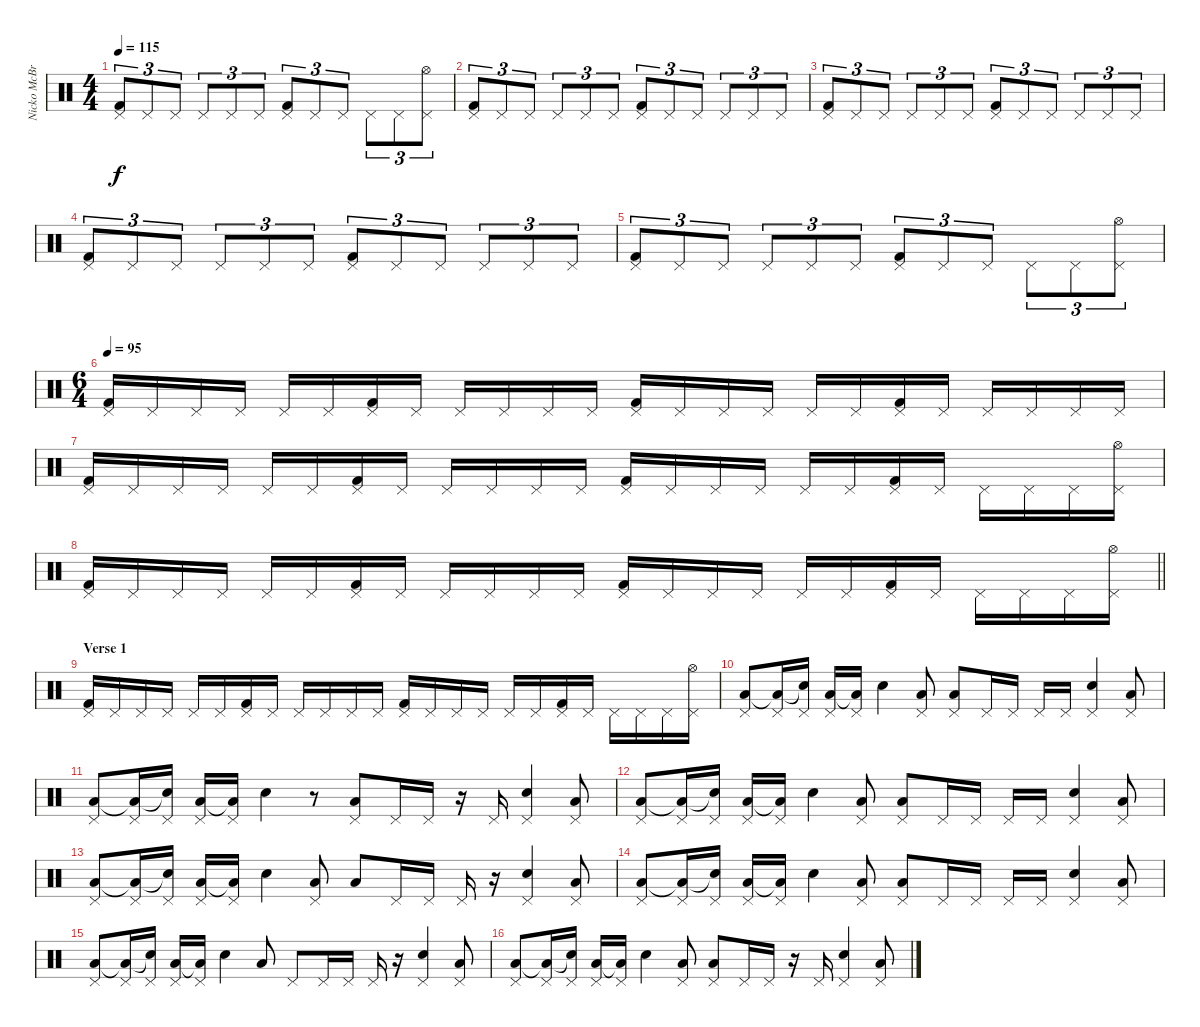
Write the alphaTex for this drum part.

\track ("Nicko McBrain" "Nicko McBr") {instrument percussion}
\staff {score}
\articulation defaults
\ts (4 4)
\tempo 115
\clef neutral
\ks c
("Pedal Hi-Hat (hit)" "Kick (hit) 2").8{tu (3 2) dy f} "Pedal Hi-Hat (hit)".8{tu (3 2)} "Pedal Hi-Hat (hit)".8{tu (3 2)} "Pedal Hi-Hat (hit)".8{tu (3 2)} "Pedal Hi-Hat (hit)".8{tu (3 2)} "Pedal Hi-Hat (hit)".8{tu (3 2)} ("Pedal Hi-Hat (hit)" "Kick (hit) 2").8{tu (3 2)} "Pedal Hi-Hat (hit)".8{tu (3 2)} "Pedal Hi-Hat (hit)".8{tu (3 2)} "Pedal Hi-Hat (hit)".8{tu (3 2)} "Pedal Hi-Hat (hit)".8{tu (3 2)} ("Pedal Hi-Hat (hit)" "Hi-Hat (open)").8{tu (3 2)} |
("Pedal Hi-Hat (hit)" "Kick (hit) 2").8{tu (3 2)} "Pedal Hi-Hat (hit)".8{tu (3 2)} "Pedal Hi-Hat (hit)".8{tu (3 2)} "Pedal Hi-Hat (hit)".8{tu (3 2)} "Pedal Hi-Hat (hit)".8{tu (3 2)} "Pedal Hi-Hat (hit)".8{tu (3 2)} ("Pedal Hi-Hat (hit)" "Kick (hit) 2").8{tu (3 2)} "Pedal Hi-Hat (hit)".8{tu (3 2)} "Pedal Hi-Hat (hit)".8{tu (3 2)} "Pedal Hi-Hat (hit)".8{tu (3 2)} "Pedal Hi-Hat (hit)".8{tu (3 2)} "Pedal Hi-Hat (hit)".8{tu (3 2)} |
("Pedal Hi-Hat (hit)" "Kick (hit) 2").8{tu (3 2)} "Pedal Hi-Hat (hit)".8{tu (3 2)} "Pedal Hi-Hat (hit)".8{tu (3 2)} "Pedal Hi-Hat (hit)".8{tu (3 2)} "Pedal Hi-Hat (hit)".8{tu (3 2)} "Pedal Hi-Hat (hit)".8{tu (3 2)} ("Pedal Hi-Hat (hit)" "Kick (hit) 2").8{tu (3 2)} "Pedal Hi-Hat (hit)".8{tu (3 2)} "Pedal Hi-Hat (hit)".8{tu (3 2)} "Pedal Hi-Hat (hit)".8{tu (3 2)} "Pedal Hi-Hat (hit)".8{tu (3 2)} "Pedal Hi-Hat (hit)".8{tu (3 2)} |
("Pedal Hi-Hat (hit)" "Kick (hit) 2").8{tu (3 2)} "Pedal Hi-Hat (hit)".8{tu (3 2)} "Pedal Hi-Hat (hit)".8{tu (3 2)} "Pedal Hi-Hat (hit)".8{tu (3 2)} "Pedal Hi-Hat (hit)".8{tu (3 2)} "Pedal Hi-Hat (hit)".8{tu (3 2)} ("Pedal Hi-Hat (hit)" "Kick (hit) 2").8{tu (3 2)} "Pedal Hi-Hat (hit)".8{tu (3 2)} "Pedal Hi-Hat (hit)".8{tu (3 2)} "Pedal Hi-Hat (hit)".8{tu (3 2)} "Pedal Hi-Hat (hit)".8{tu (3 2)} "Pedal Hi-Hat (hit)".8{tu (3 2)} |
("Pedal Hi-Hat (hit)" "Kick (hit) 2").8{tu (3 2)} "Pedal Hi-Hat (hit)".8{tu (3 2)} "Pedal Hi-Hat (hit)".8{tu (3 2)} "Pedal Hi-Hat (hit)".8{tu (3 2)} "Pedal Hi-Hat (hit)".8{tu (3 2)} "Pedal Hi-Hat (hit)".8{tu (3 2)} ("Pedal Hi-Hat (hit)" "Kick (hit) 2").8{tu (3 2)} "Pedal Hi-Hat (hit)".8{tu (3 2)} "Pedal Hi-Hat (hit)".8{tu (3 2)} "Pedal Hi-Hat (hit)".8{tu (3 2)} "Pedal Hi-Hat (hit)".8{tu (3 2)} ("Pedal Hi-Hat (hit)" "Hi-Hat (open)").8{tu (3 2)} |
\ts (6 4)
\tempo 95
("Pedal Hi-Hat (hit)" "Kick (hit) 2").16 "Pedal Hi-Hat (hit)".16 "Pedal Hi-Hat (hit)".16 "Pedal Hi-Hat (hit)".16 "Pedal Hi-Hat (hit)".16 "Pedal Hi-Hat (hit)".16 ("Pedal Hi-Hat (hit)" "Kick (hit) 2").16 "Pedal Hi-Hat (hit)".16 "Pedal Hi-Hat (hit)".16 "Pedal Hi-Hat (hit)".16 "Pedal Hi-Hat (hit)".16 "Pedal Hi-Hat (hit)".16 ("Pedal Hi-Hat (hit)" "Kick (hit) 2").16 "Pedal Hi-Hat (hit)".16 "Pedal Hi-Hat (hit)".16 "Pedal Hi-Hat (hit)".16 "Pedal Hi-Hat (hit)".16 "Pedal Hi-Hat (hit)".16 ("Pedal Hi-Hat (hit)" "Kick (hit) 2").16 "Pedal Hi-Hat (hit)".16 "Pedal Hi-Hat (hit)".16 "Pedal Hi-Hat (hit)".16 "Pedal Hi-Hat (hit)".16 "Pedal Hi-Hat (hit)".16 |
("Pedal Hi-Hat (hit)" "Kick (hit) 2").16 "Pedal Hi-Hat (hit)".16 "Pedal Hi-Hat (hit)".16 "Pedal Hi-Hat (hit)".16 "Pedal Hi-Hat (hit)".16 "Pedal Hi-Hat (hit)".16 ("Pedal Hi-Hat (hit)" "Kick (hit) 2").16 "Pedal Hi-Hat (hit)".16 "Pedal Hi-Hat (hit)".16 "Pedal Hi-Hat (hit)".16 "Pedal Hi-Hat (hit)".16 "Pedal Hi-Hat (hit)".16 ("Pedal Hi-Hat (hit)" "Kick (hit) 2").16 "Pedal Hi-Hat (hit)".16 "Pedal Hi-Hat (hit)".16 "Pedal Hi-Hat (hit)".16 "Pedal Hi-Hat (hit)".16 "Pedal Hi-Hat (hit)".16 ("Pedal Hi-Hat (hit)" "Kick (hit) 2").16 "Pedal Hi-Hat (hit)".16 "Pedal Hi-Hat (hit)".16 "Pedal Hi-Hat (hit)".16 "Pedal Hi-Hat (hit)".16 ("Pedal Hi-Hat (hit)" "Hi-Hat (open)").16 |
\barLineRight lightlight
("Pedal Hi-Hat (hit)" "Kick (hit) 2").16 "Pedal Hi-Hat (hit)".16 "Pedal Hi-Hat (hit)".16 "Pedal Hi-Hat (hit)".16 "Pedal Hi-Hat (hit)".16 "Pedal Hi-Hat (hit)".16 ("Pedal Hi-Hat (hit)" "Kick (hit) 2").16 "Pedal Hi-Hat (hit)".16 "Pedal Hi-Hat (hit)".16 "Pedal Hi-Hat (hit)".16 "Pedal Hi-Hat (hit)".16 "Pedal Hi-Hat (hit)".16 ("Pedal Hi-Hat (hit)" "Kick (hit) 2").16 "Pedal Hi-Hat (hit)".16 "Pedal Hi-Hat (hit)".16 "Pedal Hi-Hat (hit)".16 "Pedal Hi-Hat (hit)".16 "Pedal Hi-Hat (hit)".16 ("Pedal Hi-Hat (hit)" "Kick (hit) 2").16 "Pedal Hi-Hat (hit)".16 "Pedal Hi-Hat (hit)".16 "Pedal Hi-Hat (hit)".16 "Pedal Hi-Hat (hit)".16 ("Pedal Hi-Hat (hit)" "Hi-Hat (open)").16 |
\section ("" "Verse 1")
("Pedal Hi-Hat (hit)" "Kick (hit) 2").16 "Pedal Hi-Hat (hit)".16 "Pedal Hi-Hat (hit)".16 "Pedal Hi-Hat (hit)".16 "Pedal Hi-Hat (hit)".16 "Pedal Hi-Hat (hit)".16 ("Pedal Hi-Hat (hit)" "Kick (hit) 2").16 "Pedal Hi-Hat (hit)".16 "Pedal Hi-Hat (hit)".16 "Pedal Hi-Hat (hit)".16 "Pedal Hi-Hat (hit)".16 "Pedal Hi-Hat (hit)".16 ("Pedal Hi-Hat (hit)" "Kick (hit) 2").16 "Pedal Hi-Hat (hit)".16 "Pedal Hi-Hat (hit)".16 "Pedal Hi-Hat (hit)".16 "Pedal Hi-Hat (hit)".16 "Pedal Hi-Hat (hit)".16 ("Pedal Hi-Hat (hit)" "Kick (hit) 2").16 "Pedal Hi-Hat (hit)".16 "Pedal Hi-Hat (hit)".16 "Pedal Hi-Hat (hit)".16 "Pedal Hi-Hat (hit)".16 ("Pedal Hi-Hat (hit)" "Hi-Hat (open)").16 |
("Pedal Hi-Hat (hit)" "Low Floor Tom (hit)").8 ("Pedal Hi-Hat (hit)" "Low Floor Tom (hit)"{t}).16 ("Pedal Hi-Hat (hit)" "Electric Snare (hit)"{t}).16 ("Pedal Hi-Hat (hit)" "Low Floor Tom (hit)").16 ("Pedal Hi-Hat (hit)" "Low Floor Tom (hit)"{t}).16 "Electric Snare (hit)".4 ("Pedal Hi-Hat (hit)" "Low Floor Tom (hit)").8 ("Pedal Hi-Hat (hit)" "Low Floor Tom (hit)").8 "Pedal Hi-Hat (hit)".16 "Pedal Hi-Hat (hit)".16 "Pedal Hi-Hat (hit)".16 "Pedal Hi-Hat (hit)".16 ("Pedal Hi-Hat (hit)" "Electric Snare (hit)").4 ("Pedal Hi-Hat (hit)" "Low Floor Tom (hit)").8 |
("Pedal Hi-Hat (hit)" "Low Floor Tom (hit)").8 ("Pedal Hi-Hat (hit)" "Low Floor Tom (hit)"{t}).16 ("Pedal Hi-Hat (hit)" "Electric Snare (hit)"{t}).16 ("Pedal Hi-Hat (hit)" "Low Floor Tom (hit)").16 ("Pedal Hi-Hat (hit)" "Low Floor Tom (hit)"{t}).16 "Electric Snare (hit)".4 r.8 ("Pedal Hi-Hat (hit)" "Low Floor Tom (hit)").8 "Pedal Hi-Hat (hit)".16 "Pedal Hi-Hat (hit)".16 r.16 "Pedal Hi-Hat (hit)".16 ("Pedal Hi-Hat (hit)" "Electric Snare (hit)").4 ("Pedal Hi-Hat (hit)" "Low Floor Tom (hit)").8 |
("Pedal Hi-Hat (hit)" "Low Floor Tom (hit)").8 ("Pedal Hi-Hat (hit)" "Low Floor Tom (hit)"{t}).16 ("Pedal Hi-Hat (hit)" "Electric Snare (hit)"{t}).16 ("Pedal Hi-Hat (hit)" "Low Floor Tom (hit)").16 ("Pedal Hi-Hat (hit)" "Low Floor Tom (hit)"{t}).16 "Electric Snare (hit)".4 ("Pedal Hi-Hat (hit)" "Low Floor Tom (hit)").8 ("Pedal Hi-Hat (hit)" "Low Floor Tom (hit)").8 "Pedal Hi-Hat (hit)".16 "Pedal Hi-Hat (hit)".16 "Pedal Hi-Hat (hit)".16 "Pedal Hi-Hat (hit)".16 ("Pedal Hi-Hat (hit)" "Electric Snare (hit)").4 ("Pedal Hi-Hat (hit)" "Low Floor Tom (hit)").8 |
("Pedal Hi-Hat (hit)" "Low Floor Tom (hit)").8 ("Pedal Hi-Hat (hit)" "Low Floor Tom (hit)"{t}).16 ("Pedal Hi-Hat (hit)" "Electric Snare (hit)"{t}).16 ("Pedal Hi-Hat (hit)" "Low Floor Tom (hit)").16 ("Pedal Hi-Hat (hit)" "Low Floor Tom (hit)"{t}).16 "Electric Snare (hit)".4 ("Pedal Hi-Hat (hit)" "Low Floor Tom (hit)").8 "Low Floor Tom (hit)".8 "Pedal Hi-Hat (hit)".16 "Pedal Hi-Hat (hit)".16 "Pedal Hi-Hat (hit)".16 r.16 ("Pedal Hi-Hat (hit)" "Electric Snare (hit)").4 ("Pedal Hi-Hat (hit)" "Low Floor Tom (hit)").8 |
("Pedal Hi-Hat (hit)" "Low Floor Tom (hit)").8 ("Pedal Hi-Hat (hit)" "Low Floor Tom (hit)"{t}).16 ("Pedal Hi-Hat (hit)" "Electric Snare (hit)"{t}).16 ("Pedal Hi-Hat (hit)" "Low Floor Tom (hit)").16 ("Pedal Hi-Hat (hit)" "Low Floor Tom (hit)"{t}).16 "Electric Snare (hit)".4 ("Pedal Hi-Hat (hit)" "Low Floor Tom (hit)").8 ("Pedal Hi-Hat (hit)" "Low Floor Tom (hit)").8 "Pedal Hi-Hat (hit)".16 "Pedal Hi-Hat (hit)".16 "Pedal Hi-Hat (hit)".16 "Pedal Hi-Hat (hit)".16 ("Pedal Hi-Hat (hit)" "Electric Snare (hit)").4 ("Pedal Hi-Hat (hit)" "Low Floor Tom (hit)").8 |
("Pedal Hi-Hat (hit)" "Low Floor Tom (hit)").8 ("Pedal Hi-Hat (hit)" "Low Floor Tom (hit)"{t}).16 ("Pedal Hi-Hat (hit)" "Electric Snare (hit)"{t}).16 ("Pedal Hi-Hat (hit)" "Low Floor Tom (hit)").16 ("Pedal Hi-Hat (hit)" "Low Floor Tom (hit)"{t}).16 "Electric Snare (hit)".4 "Low Floor Tom (hit)".8 "Pedal Hi-Hat (hit)".8 "Pedal Hi-Hat (hit)".16 "Pedal Hi-Hat (hit)".16 "Pedal Hi-Hat (hit)".16 r.16 ("Pedal Hi-Hat (hit)" "Electric Snare (hit)").4 ("Pedal Hi-Hat (hit)" "Low Floor Tom (hit)").8 |
("Pedal Hi-Hat (hit)" "Low Floor Tom (hit)").8 ("Pedal Hi-Hat (hit)" "Low Floor Tom (hit)"{t}).16 ("Pedal Hi-Hat (hit)" "Electric Snare (hit)"{t}).16 ("Pedal Hi-Hat (hit)" "Low Floor Tom (hit)").16 ("Pedal Hi-Hat (hit)" "Low Floor Tom (hit)"{t}).16 "Electric Snare (hit)".4 ("Pedal Hi-Hat (hit)" "Low Floor Tom (hit)").8 ("Pedal Hi-Hat (hit)" "Low Floor Tom (hit)").8 "Pedal Hi-Hat (hit)".16 "Pedal Hi-Hat (hit)".16 r.16 "Pedal Hi-Hat (hit)".16 ("Pedal Hi-Hat (hit)" "Electric Snare (hit)").4 ("Pedal Hi-Hat (hit)" "Low Floor Tom (hit)").8
